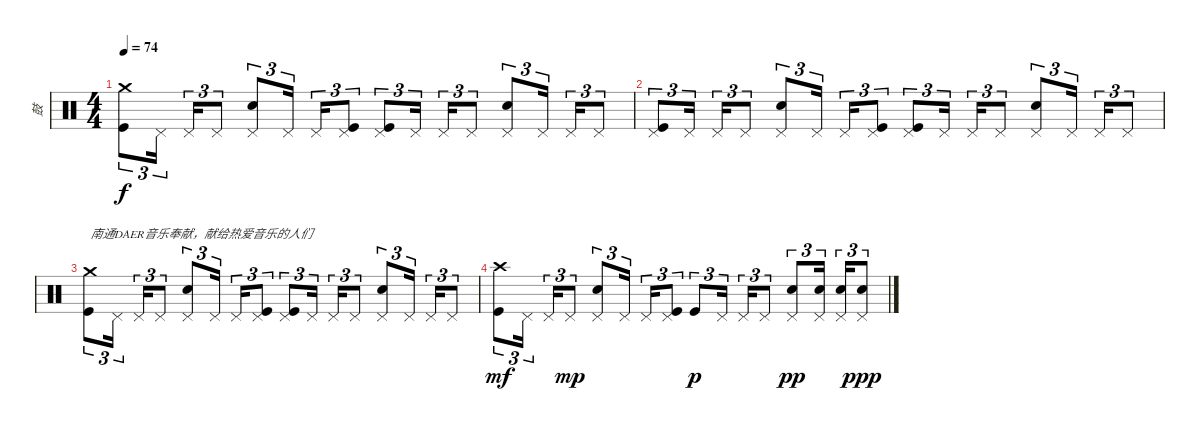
\track ("鼓" "鼓") {instrument percussion}
\staff {score}
\articulation defaults
\ts (4 4)
\tempo 74
\clef neutral
\ks c
("Crash medium (hit)" "Kick (hit)").8{tu (3 2) dy f} "Pedal Hi-Hat (hit)".16{tu (3 2)} "Pedal Hi-Hat (hit)".16{tu (3 2)} "Pedal Hi-Hat (hit)".8{tu (3 2)} ("Pedal Hi-Hat (hit)" "Electric Snare (hit)").8{tu (3 2)} "Pedal Hi-Hat (hit)".16{tu (3 2)} "Pedal Hi-Hat (hit)".16{tu (3 2)} ("Pedal Hi-Hat (hit)" "Kick (hit)").8{tu (3 2)} ("Pedal Hi-Hat (hit)" "Kick (hit)").8{tu (3 2)} "Pedal Hi-Hat (hit)".16{tu (3 2)} "Pedal Hi-Hat (hit)".16{tu (3 2)} "Pedal Hi-Hat (hit)".8{tu (3 2)} ("Pedal Hi-Hat (hit)" "Electric Snare (hit)").8{tu (3 2)} "Pedal Hi-Hat (hit)".16{tu (3 2)} "Pedal Hi-Hat (hit)".16{tu (3 2)} "Pedal Hi-Hat (hit)".8{tu (3 2)} |
("Pedal Hi-Hat (hit)" "Kick (hit)").8{tu (3 2)} "Pedal Hi-Hat (hit)".16{tu (3 2)} "Pedal Hi-Hat (hit)".16{tu (3 2)} "Pedal Hi-Hat (hit)".8{tu (3 2)} ("Pedal Hi-Hat (hit)" "Electric Snare (hit)").8{tu (3 2)} "Pedal Hi-Hat (hit)".16{tu (3 2)} "Pedal Hi-Hat (hit)".16{tu (3 2)} ("Pedal Hi-Hat (hit)" "Kick (hit)").8{tu (3 2)} ("Pedal Hi-Hat (hit)" "Kick (hit)").8{tu (3 2)} "Pedal Hi-Hat (hit)".16{tu (3 2)} "Pedal Hi-Hat (hit)".16{tu (3 2)} "Pedal Hi-Hat (hit)".8{tu (3 2)} ("Pedal Hi-Hat (hit)" "Electric Snare (hit)").8{tu (3 2)} "Pedal Hi-Hat (hit)".16{tu (3 2)} "Pedal Hi-Hat (hit)".16{tu (3 2)} "Pedal Hi-Hat (hit)".8{tu (3 2)} |
("Crash medium (hit)" "Kick (hit)").8{tu (3 2) txt "南通DAER音乐奉献，献给热爱音乐的人们"} "Pedal Hi-Hat (hit)".16{tu (3 2)} "Pedal Hi-Hat (hit)".16{tu (3 2)} "Pedal Hi-Hat (hit)".8{tu (3 2)} ("Pedal Hi-Hat (hit)" "Electric Snare (hit)").8{tu (3 2)} "Pedal Hi-Hat (hit)".16{tu (3 2)} "Pedal Hi-Hat (hit)".16{tu (3 2)} ("Pedal Hi-Hat (hit)" "Kick (hit)").8{tu (3 2)} ("Pedal Hi-Hat (hit)" "Kick (hit)").8{tu (3 2)} "Pedal Hi-Hat (hit)".16{tu (3 2)} "Pedal Hi-Hat (hit)".16{tu (3 2)} "Pedal Hi-Hat (hit)".8{tu (3 2)} ("Pedal Hi-Hat (hit)" "Electric Snare (hit)").8{tu (3 2)} "Pedal Hi-Hat (hit)".16{tu (3 2)} "Pedal Hi-Hat (hit)".16{tu (3 2)} "Pedal Hi-Hat (hit)".8{tu (3 2)} |
("Crash high (hit)" "Kick (hit)").8{tu (3 2) dy mf} "Pedal Hi-Hat (hit)".16{tu (3 2)} "Pedal Hi-Hat (hit)".16{tu (3 2)} "Pedal Hi-Hat (hit)".8{tu (3 2) dy mp} ("Pedal Hi-Hat (hit)" "Electric Snare (hit)").8{tu (3 2)} "Pedal Hi-Hat (hit)".16{tu (3 2)} "Pedal Hi-Hat (hit)".16{tu (3 2)} ("Pedal Hi-Hat (hit)" "Kick (hit)").8{tu (3 2)} "Kick (hit)".8{tu (3 2) dy p} "Pedal Hi-Hat (hit)".16{tu (3 2)} "Pedal Hi-Hat (hit)".16{tu (3 2)} "Pedal Hi-Hat (hit)".8{tu (3 2)} ("Pedal Hi-Hat (hit)" "Electric Snare (hit)").8{tu (3 2) dy pp} ("Pedal Hi-Hat (hit)" "Electric Snare (hit)").16{tu (3 2)} ("Pedal Hi-Hat (hit)" "Electric Snare (hit)").16{tu (3 2)} ("Pedal Hi-Hat (hit)" "Electric Snare (hit)").8{tu (3 2) dy ppp}
